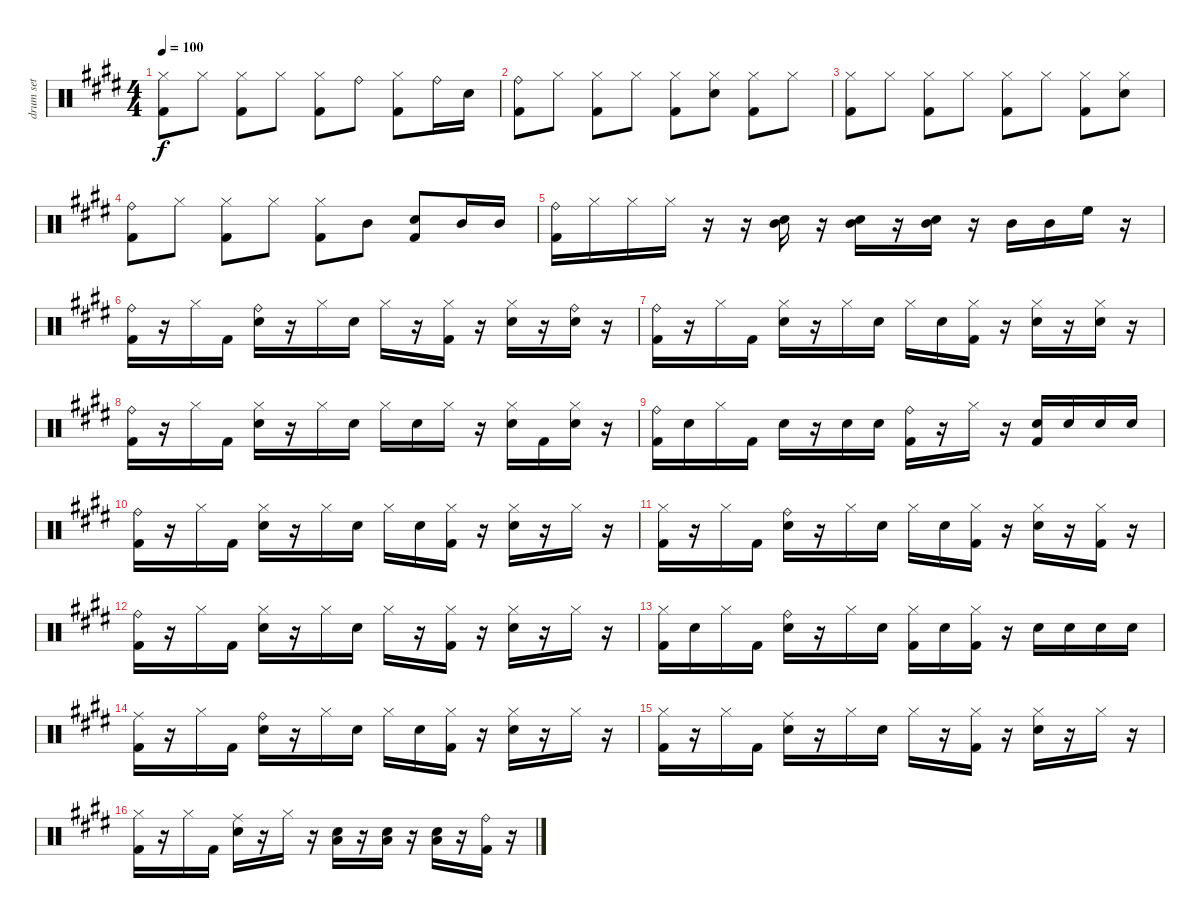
\track ("drum set" "drum set") {instrument percussion}
\staff {score}
\articulation defaults
\ts (4 4)
\tempo 100
\clef neutral
\ks e
("Hi-Hat (closed)" "Kick (hit) 2").8{dy f} "Hi-Hat (closed)".8 ("Hi-Hat (closed)" "Kick (hit) 2").8 "Hi-Hat (closed)".8 ("Hi-Hat (closed)" "Kick (hit) 2").8 "Ride (bell)".8 ("Hi-Hat (closed)" "Kick (hit) 2").8 "Ride (bell)".16 "Snare (hit) 2".16 |
("Ride (bell)" "Kick (hit) 2").8 "Hi-Hat (closed)".8 ("Hi-Hat (closed)" "Kick (hit) 2").8 "Hi-Hat (closed)".8 ("Hi-Hat (closed)" "Kick (hit) 2").8 ("Hi-Hat (closed)" "Snare (hit) 2").8 ("Hi-Hat (closed)" "Kick (hit) 2").8 "Hi-Hat (closed)".8 |
("Hi-Hat (closed)" "Kick (hit) 2").8 "Hi-Hat (closed)".8 ("Hi-Hat (closed)" "Kick (hit) 2").8 "Hi-Hat (closed)".8 ("Hi-Hat (closed)" "Kick (hit) 2").8 "Hi-Hat (closed)".8 ("Hi-Hat (closed)" "Kick (hit) 2").8 ("Hi-Hat (closed)" "Snare (hit) 2").8 |
("Ride (bell)" "Kick (hit) 2").8 "Hi-Hat (closed)".8 ("Hi-Hat (closed)" "Kick (hit) 2").8 "Hi-Hat (closed)".8 ("Hi-Hat (closed)" "Kick (hit) 2").8 "Mid Tom (hit)".8 ("Snare (hit) 2" "Kick (hit) 2").8 "Mid Tom (hit)".16 "Mid Tom (hit)".16 |
("Ride (bell)" "Kick (hit) 2").16 "Hi-Hat (closed)".16 "Hi-Hat (closed)".16 "Hi-Hat (closed)".16 r.16 r.16 ("Snare (hit) 2" "Mid Tom (hit)").16 r.16 ("Snare (hit) 2" "Mid Tom (hit)").16 r.16 ("Snare (hit) 2" "Mid Tom (hit)").16 r.16 "Mid Tom (hit)".16 "Mid Tom (hit)".16 "High Floor Tom (hit)".16 r.16 |
("Ride (bell)" "Kick (hit) 2").16 r.16 "Hi-Hat (closed)".16 "Kick (hit) 2".16 ("Ride (bell)" "Snare (hit) 2").16 r.16 "Hi-Hat (closed)".16 "Snare (hit) 2".16 "Hi-Hat (closed)".16 r.16 ("Hi-Hat (closed)" "Kick (hit) 2").16 r.16 ("Hi-Hat (closed)" "Snare (hit) 2").16 r.16 ("Ride (bell)" "Snare (hit) 2").16 r.16 |
("Ride (bell)" "Kick (hit) 2").16 r.16 "Hi-Hat (closed)".16 "Kick (hit) 2".16 ("Hi-Hat (closed)" "Snare (hit) 2").16 r.16 "Hi-Hat (closed)".16 "Snare (hit) 2".16 "Hi-Hat (closed)".16 "Snare (hit) 2".16 ("Hi-Hat (closed)" "Kick (hit) 2").16 r.16 ("Hi-Hat (closed)" "Snare (hit) 2").16 r.16 ("Hi-Hat (closed)" "Snare (hit) 2").16 r.16 |
("Ride (bell)" "Kick (hit) 2").16 r.16 "Hi-Hat (closed)".16 "Kick (hit) 2".16 ("Hi-Hat (closed)" "Snare (hit) 2").16 r.16 "Hi-Hat (closed)".16 "Snare (hit) 2".16 "Hi-Hat (closed)".16 "Snare (hit) 2".16 "Hi-Hat (closed)".16 r.16 ("Hi-Hat (closed)" "Snare (hit) 2").16 "Kick (hit) 2".16 ("Hi-Hat (closed)" "Snare (hit) 2").16 r.16 |
("Ride (bell)" "Kick (hit) 2").16 "Snare (hit) 2".16 "Hi-Hat (closed)".16 "Kick (hit) 2".16 "Snare (hit) 2".16 r.16 "Snare (hit) 2".16 "Snare (hit) 2".16 ("Ride (bell)" "Kick (hit) 2").16 r.16 "Hi-Hat (closed)".16 r.16 ("Snare (hit) 2" "Kick (hit) 2").16 "Snare (hit) 2".16 "Snare (hit) 2".16 "Snare (hit) 2".16 |
("Ride (bell)" "Kick (hit) 2").16 r.16 "Hi-Hat (closed)".16 "Kick (hit) 2".16 ("Hi-Hat (closed)" "Snare (hit) 2").16 r.16 "Hi-Hat (closed)".16 "Snare (hit) 2".16 "Hi-Hat (closed)".16 "Snare (hit) 2".16 ("Kick (hit) 2" "Hi-Hat (closed)").16 r.16 ("Hi-Hat (closed)" "Snare (hit) 2").16 r.16 "Hi-Hat (closed)".16 r.16 |
("Hi-Hat (closed)" "Kick (hit) 2").16 r.16 "Hi-Hat (closed)".16 "Kick (hit) 2".16 ("Ride (bell)" "Snare (hit) 2").16 r.16 "Hi-Hat (closed)".16 "Snare (hit) 2".16 "Hi-Hat (closed)".16 "Snare (hit) 2".16 ("Hi-Hat (closed)" "Kick (hit) 2").16 r.16 ("Hi-Hat (closed)" "Snare (hit) 2").16 r.16 ("Hi-Hat (closed)" "Kick (hit) 2").16 r.16 |
("Ride (bell)" "Kick (hit) 2").16 r.16 "Hi-Hat (closed)".16 "Kick (hit) 2".16 ("Hi-Hat (closed)" "Snare (hit) 2").16 r.16 "Hi-Hat (closed)".16 "Snare (hit) 2".16 "Hi-Hat (closed)".16 r.16 ("Hi-Hat (closed)" "Kick (hit) 2").16 r.16 ("Hi-Hat (closed)" "Snare (hit) 2").16 r.16 "Hi-Hat (closed)".16 r.16 |
("Hi-Hat (closed)" "Kick (hit) 2").16 "Snare (hit) 2".16 "Hi-Hat (closed)".16 "Kick (hit) 2".16 ("Ride (bell)" "Snare (hit) 2").16 r.16 "Hi-Hat (closed)".16 "Snare (hit) 2".16 ("Hi-Hat (closed)" "Kick (hit) 2").16 "Snare (hit) 2".16 ("Hi-Hat (closed)" "Kick (hit) 2").16 r.16 "Snare (hit) 2".16 "Snare (hit) 2".16 "Snare (hit) 2".16 "Snare (hit) 2".16 |
("Ride (middle)" "Kick (hit) 2").16 r.16 "Hi-Hat (closed)".16 "Kick (hit) 2".16 ("Ride (bell)" "Snare (hit) 2").16 r.16 "Hi-Hat (closed)".16 "Snare (hit) 2".16 "Hi-Hat (closed)".16 "Snare (hit) 2".16 ("Hi-Hat (closed)" "Kick (hit) 2").16 r.16 ("Hi-Hat (closed)" "Snare (hit) 2").16 r.16 "Hi-Hat (closed)".16 r.16 |
("Hi-Hat (closed)" "Kick (hit) 2").16 r.16 "Hi-Hat (closed)".16 "Kick (hit) 2".16 ("Ride (middle)" "Snare (hit) 2").16 r.16 "Hi-Hat (closed)".16 "Snare (hit) 2".16 "Hi-Hat (closed)".16 r.16 ("Hi-Hat (closed)" "Kick (hit) 2").16 r.16 ("Hi-Hat (closed)" "Snare (hit) 2").16 r.16 "Hi-Hat (closed)".16 r.16 |
("Hi-Hat (closed)" "Kick (hit) 2").16 r.16 "Hi-Hat (closed)".16 "Kick (hit) 2".16 ("Ride (middle)" "Snare (hit) 2").16 r.16 "Hi-Hat (closed)".16 r.16 ("Snare (hit) 2" "Low Tom (hit)").16 r.16 ("Snare (hit) 2" "Low Tom (hit)").16 r.16 ("Snare (hit) 2" "Low Tom (hit)").16 r.16 ("Ride (bell)" "Kick (hit) 2").16 r.16
